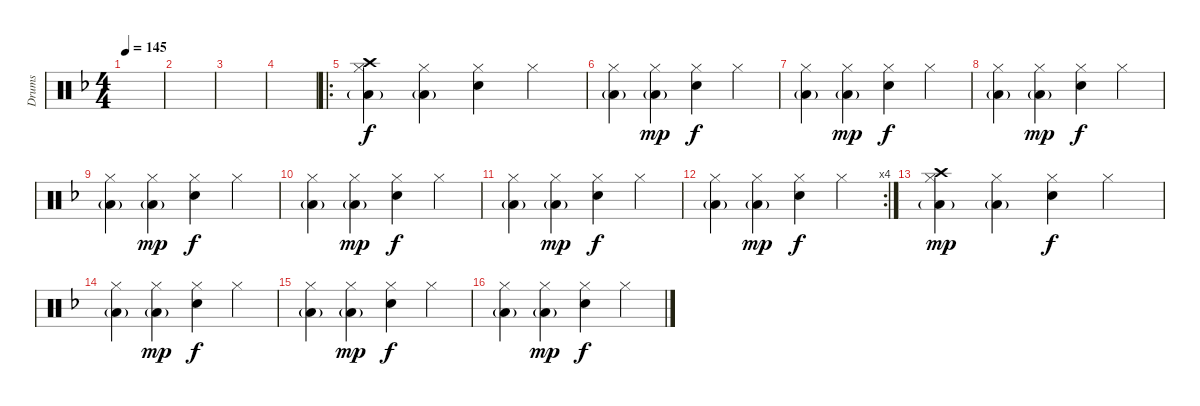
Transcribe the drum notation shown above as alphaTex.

\track ("Drums" "Drums") {instrument percussion}
\staff {score}
\articulation defaults
\ts (4 4)
\tempo 145
\clef neutral
\ks f
|
|
|
|
\ro
("Hi-Hat (closed)" "Crash high (hit)" "Low Tom (hit)"{g}).4 ("Hi-Hat (closed)" "Low Tom (hit)"{g}).4 ("Hi-Hat (closed)" "Snare (hit) 2").4{dy f} "Hi-Hat (closed)".4 |
("Hi-Hat (closed)" "Low Tom (hit)"{g}).4 ("Hi-Hat (closed)" "Low Tom (hit)"{g}).4{dy mp} ("Hi-Hat (closed)" "Snare (hit) 2").4{dy f} "Hi-Hat (closed)".4 |
("Hi-Hat (closed)" "Low Tom (hit)"{g}).4 ("Hi-Hat (closed)" "Low Tom (hit)"{g}).4{dy mp} ("Hi-Hat (closed)" "Snare (hit) 2").4{dy f} "Hi-Hat (closed)".4 |
("Hi-Hat (closed)" "Low Tom (hit)"{g}).4 ("Hi-Hat (closed)" "Low Tom (hit)"{g}).4{dy mp} ("Hi-Hat (closed)" "Snare (hit) 2").4{dy f} "Hi-Hat (closed)".4 |
("Hi-Hat (closed)" "Low Tom (hit)"{g}).4 ("Hi-Hat (closed)" "Low Tom (hit)"{g}).4{dy mp} ("Hi-Hat (closed)" "Snare (hit) 2").4{dy f} "Hi-Hat (closed)".4 |
("Hi-Hat (closed)" "Low Tom (hit)"{g}).4 ("Hi-Hat (closed)" "Low Tom (hit)"{g}).4{dy mp} ("Hi-Hat (closed)" "Snare (hit) 2").4{dy f} "Hi-Hat (closed)".4 |
("Hi-Hat (closed)" "Low Tom (hit)"{g}).4 ("Hi-Hat (closed)" "Low Tom (hit)"{g}).4{dy mp} ("Hi-Hat (closed)" "Snare (hit) 2").4{dy f} "Hi-Hat (closed)".4 |
\rc 4
("Hi-Hat (closed)" "Low Tom (hit)"{g}).4 ("Hi-Hat (closed)" "Low Tom (hit)"{g}).4{dy mp} ("Hi-Hat (closed)" "Snare (hit) 2").4{dy f} "Hi-Hat (closed)".4 |
("Hi-Hat (closed)" "Crash high (hit)" "Low Tom (hit)"{g}).4{dy mp} ("Hi-Hat (closed)" "Low Tom (hit)"{g}).4 ("Hi-Hat (closed)" "Snare (hit) 2").4{dy f} "Hi-Hat (closed)".4 |
("Hi-Hat (closed)" "Low Tom (hit)"{g}).4 ("Hi-Hat (closed)" "Low Tom (hit)"{g}).4{dy mp} ("Hi-Hat (closed)" "Snare (hit) 2").4{dy f} "Hi-Hat (closed)".4 |
("Hi-Hat (closed)" "Low Tom (hit)"{g}).4 ("Hi-Hat (closed)" "Low Tom (hit)"{g}).4{dy mp} ("Hi-Hat (closed)" "Snare (hit) 2").4{dy f} "Hi-Hat (closed)".4 |
("Hi-Hat (closed)" "Low Tom (hit)"{g}).4 ("Hi-Hat (closed)" "Low Tom (hit)"{g}).4{dy mp} ("Hi-Hat (closed)" "Snare (hit) 2").4{dy f} "Hi-Hat (closed)".4
